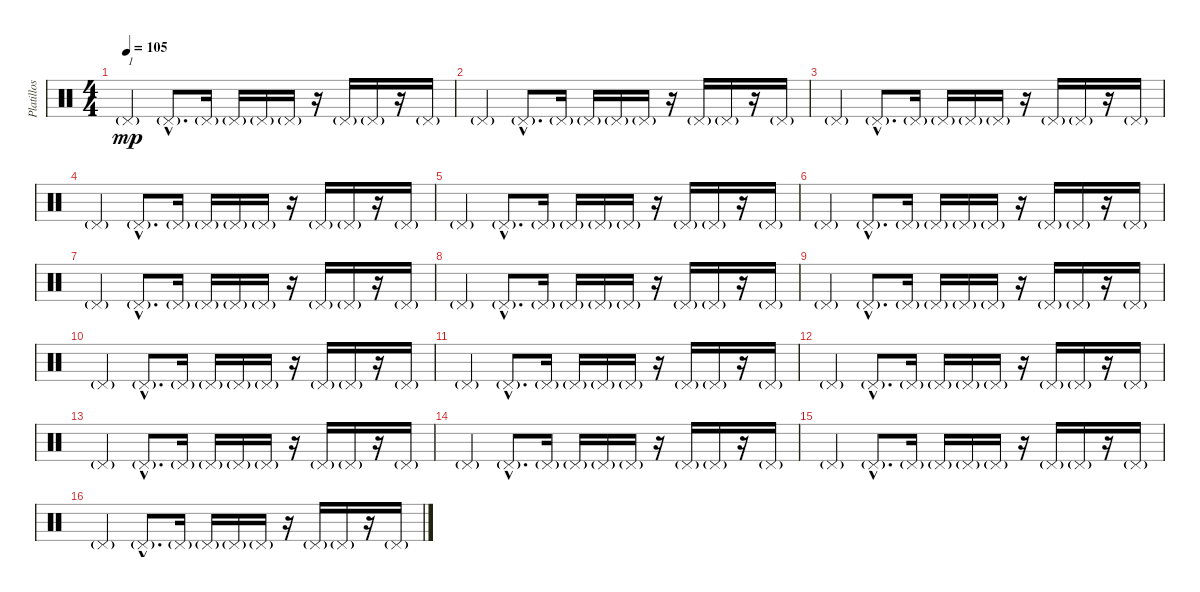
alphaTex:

\track ("Platillos" "Platillos") {instrument percussion}
\staff {score}
\articulation defaults
\ts (4 4)
\tempo 105
\clef neutral
\ks c "Pedal Hi-Hat (hit)"{g}.4{txt "1" dy mp} "Pedal Hi-Hat (hit)"{g hac}.8{d} "Pedal Hi-Hat (hit)"{g}.16 "Pedal Hi-Hat (hit)"{g}.16 "Pedal Hi-Hat (hit)"{g}.16 "Pedal Hi-Hat (hit)"{g}.16
r.16 "Pedal Hi-Hat (hit)"{g}.16 "Pedal Hi-Hat (hit)"{g}.16 r.16 "Pedal Hi-Hat (hit)"{g}.16 |
"Pedal Hi-Hat (hit)"{g}.4 "Pedal Hi-Hat (hit)"{g hac}.8{d} "Pedal Hi-Hat (hit)"{g}.16 "Pedal Hi-Hat (hit)"{g}.16 "Pedal Hi-Hat (hit)"{g}.16 "Pedal Hi-Hat (hit)"{g}.16 r.16 "Pedal Hi-Hat (hit)"{g}.16 "Pedal Hi-Hat (hit)"{g}.16 r.16 "Pedal Hi-Hat (hit)"{g}.16 |
"Pedal Hi-Hat (hit)"{g}.4 "Pedal Hi-Hat (hit)"{g hac}.8{d} "Pedal Hi-Hat (hit)"{g}.16 "Pedal Hi-Hat (hit)"{g}.16 "Pedal Hi-Hat (hit)"{g}.16 "Pedal Hi-Hat (hit)"{g}.16 r.16 "Pedal Hi-Hat (hit)"{g}.16 "Pedal Hi-Hat (hit)"{g}.16 r.16 "Pedal Hi-Hat (hit)"{g}.16 |
"Pedal Hi-Hat (hit)"{g}.4 "Pedal Hi-Hat (hit)"{g hac}.8{d} "Pedal Hi-Hat (hit)"{g}.16 "Pedal Hi-Hat (hit)"{g}.16 "Pedal Hi-Hat (hit)"{g}.16 "Pedal Hi-Hat (hit)"{g}.16 r.16 "Pedal Hi-Hat (hit)"{g}.16 "Pedal Hi-Hat (hit)"{g}.16 r.16 "Pedal Hi-Hat (hit)"{g}.16 |
"Pedal Hi-Hat (hit)"{g}.4 "Pedal Hi-Hat (hit)"{g hac}.8{d} "Pedal Hi-Hat (hit)"{g}.16 "Pedal Hi-Hat (hit)"{g}.16 "Pedal Hi-Hat (hit)"{g}.16 "Pedal Hi-Hat (hit)"{g}.16 r.16 "Pedal Hi-Hat (hit)"{g}.16 "Pedal Hi-Hat (hit)"{g}.16 r.16 "Pedal Hi-Hat (hit)"{g}.16 |
"Pedal Hi-Hat (hit)"{g}.4 "Pedal Hi-Hat (hit)"{g hac}.8{d} "Pedal Hi-Hat (hit)"{g}.16 "Pedal Hi-Hat (hit)"{g}.16 "Pedal Hi-Hat (hit)"{g}.16 "Pedal Hi-Hat (hit)"{g}.16 r.16 "Pedal Hi-Hat (hit)"{g}.16 "Pedal Hi-Hat (hit)"{g}.16 r.16 "Pedal Hi-Hat (hit)"{g}.16 |
"Pedal Hi-Hat (hit)"{g}.4 "Pedal Hi-Hat (hit)"{g hac}.8{d} "Pedal Hi-Hat (hit)"{g}.16 "Pedal Hi-Hat (hit)"{g}.16 "Pedal Hi-Hat (hit)"{g}.16 "Pedal Hi-Hat (hit)"{g}.16 r.16 "Pedal Hi-Hat (hit)"{g}.16 "Pedal Hi-Hat (hit)"{g}.16 r.16 "Pedal Hi-Hat (hit)"{g}.16 |
"Pedal Hi-Hat (hit)"{g}.4 "Pedal Hi-Hat (hit)"{g hac}.8{d} "Pedal Hi-Hat (hit)"{g}.16 "Pedal Hi-Hat (hit)"{g}.16 "Pedal Hi-Hat (hit)"{g}.16 "Pedal Hi-Hat (hit)"{g}.16 r.16 "Pedal Hi-Hat (hit)"{g}.16 "Pedal Hi-Hat (hit)"{g}.16 r.16 "Pedal Hi-Hat (hit)"{g}.16 |
"Pedal Hi-Hat (hit)"{g}.4 "Pedal Hi-Hat (hit)"{g hac}.8{d} "Pedal Hi-Hat (hit)"{g}.16 "Pedal Hi-Hat (hit)"{g}.16 "Pedal Hi-Hat (hit)"{g}.16 "Pedal Hi-Hat (hit)"{g}.16 r.16 "Pedal Hi-Hat (hit)"{g}.16 "Pedal Hi-Hat (hit)"{g}.16 r.16 "Pedal Hi-Hat (hit)"{g}.16 |
"Pedal Hi-Hat (hit)"{g}.4 "Pedal Hi-Hat (hit)"{g hac}.8{d} "Pedal Hi-Hat (hit)"{g}.16 "Pedal Hi-Hat (hit)"{g}.16 "Pedal Hi-Hat (hit)"{g}.16 "Pedal Hi-Hat (hit)"{g}.16 r.16 "Pedal Hi-Hat (hit)"{g}.16 "Pedal Hi-Hat (hit)"{g}.16 r.16 "Pedal Hi-Hat (hit)"{g}.16 |
"Pedal Hi-Hat (hit)"{g}.4 "Pedal Hi-Hat (hit)"{g hac}.8{d} "Pedal Hi-Hat (hit)"{g}.16 "Pedal Hi-Hat (hit)"{g}.16 "Pedal Hi-Hat (hit)"{g}.16 "Pedal Hi-Hat (hit)"{g}.16 r.16 "Pedal Hi-Hat (hit)"{g}.16 "Pedal Hi-Hat (hit)"{g}.16 r.16 "Pedal Hi-Hat (hit)"{g}.16 |
"Pedal Hi-Hat (hit)"{g}.4 "Pedal Hi-Hat (hit)"{g hac}.8{d} "Pedal Hi-Hat (hit)"{g}.16 "Pedal Hi-Hat (hit)"{g}.16 "Pedal Hi-Hat (hit)"{g}.16 "Pedal Hi-Hat (hit)"{g}.16 r.16 "Pedal Hi-Hat (hit)"{g}.16 "Pedal Hi-Hat (hit)"{g}.16 r.16 "Pedal Hi-Hat (hit)"{g}.16 |
"Pedal Hi-Hat (hit)"{g}.4 "Pedal Hi-Hat (hit)"{g hac}.8{d} "Pedal Hi-Hat (hit)"{g}.16 "Pedal Hi-Hat (hit)"{g}.16 "Pedal Hi-Hat (hit)"{g}.16 "Pedal Hi-Hat (hit)"{g}.16 r.16 "Pedal Hi-Hat (hit)"{g}.16 "Pedal Hi-Hat (hit)"{g}.16 r.16 "Pedal Hi-Hat (hit)"{g}.16 |
"Pedal Hi-Hat (hit)"{g}.4 "Pedal Hi-Hat (hit)"{g hac}.8{d} "Pedal Hi-Hat (hit)"{g}.16 "Pedal Hi-Hat (hit)"{g}.16 "Pedal Hi-Hat (hit)"{g}.16 "Pedal Hi-Hat (hit)"{g}.16 r.16 "Pedal Hi-Hat (hit)"{g}.16 "Pedal Hi-Hat (hit)"{g}.16 r.16 "Pedal Hi-Hat (hit)"{g}.16 |
"Pedal Hi-Hat (hit)"{g}.4 "Pedal Hi-Hat (hit)"{g hac}.8{d} "Pedal Hi-Hat (hit)"{g}.16 "Pedal Hi-Hat (hit)"{g}.16 "Pedal Hi-Hat (hit)"{g}.16 "Pedal Hi-Hat (hit)"{g}.16 r.16 "Pedal Hi-Hat (hit)"{g}.16 "Pedal Hi-Hat (hit)"{g}.16 r.16 "Pedal Hi-Hat (hit)"{g}.16 |
"Pedal Hi-Hat (hit)"{g}.4 "Pedal Hi-Hat (hit)"{g hac}.8{d} "Pedal Hi-Hat (hit)"{g}.16 "Pedal Hi-Hat (hit)"{g}.16 "Pedal Hi-Hat (hit)"{g}.16 "Pedal Hi-Hat (hit)"{g}.16 r.16 "Pedal Hi-Hat (hit)"{g}.16 "Pedal Hi-Hat (hit)"{g}.16 r.16 "Pedal Hi-Hat (hit)"{g}.16
